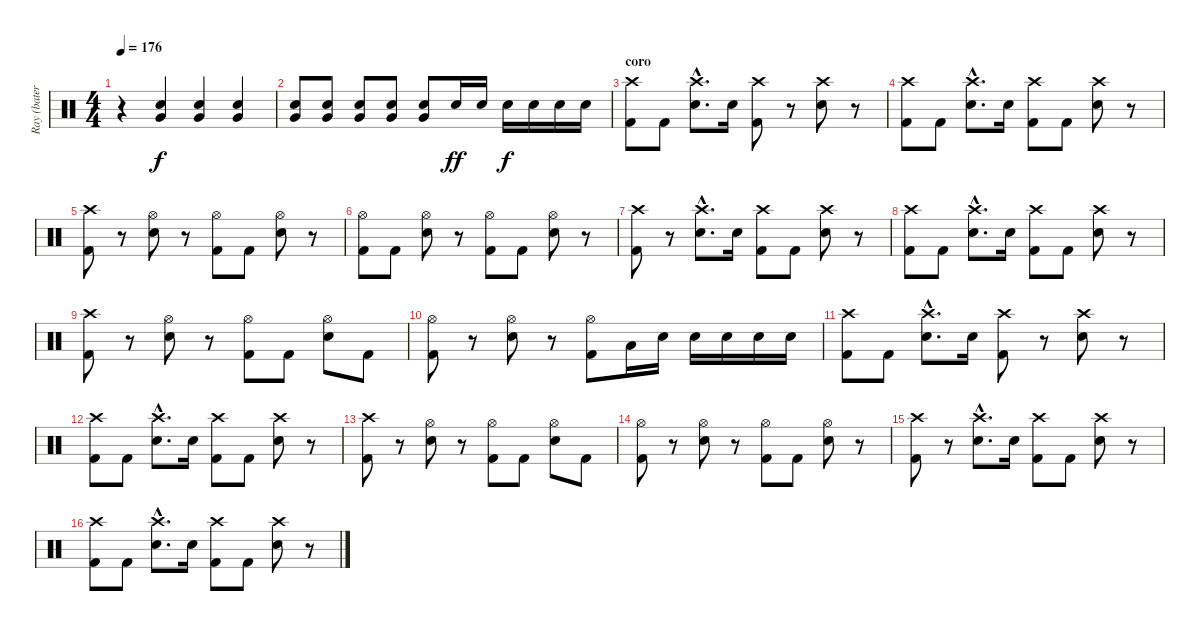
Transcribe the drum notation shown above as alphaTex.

\track ("Ray (batería)" "Ray (bater") {instrument percussion}
\staff {score}
\articulation defaults
\ts (4 4)
\tempo 176
\clef neutral
\ks c
r.4{dy f} ("Snare (hit) 2" "Very Low Tom (hit)").4 ("Snare (hit) 2" "Very Low Tom (hit)").4 ("Snare (hit) 2" "Very Low Tom (hit)").4 |
("Snare (hit) 2" "Very Low Tom (hit)").8 ("Snare (hit) 2" "Very Low Tom (hit)").8 ("Snare (hit) 2" "Very Low Tom (hit)").8 ("Snare (hit) 2" "Very Low Tom (hit)").8 ("Snare (hit) 2" "Very Low Tom (hit)").8 "Snare (hit) 2".16{dy ff} "Snare (hit) 2".16 "Snare (hit) 2".16{dy f} "Snare (hit) 2".16 "Snare (hit) 2".16 "Snare (hit) 2".16 |
\section ("" "coro")
("Crash high (hit)" "Kick (hit) 2").8 "Kick (hit) 2".8 ("Crash high (hit)"{hac} "Snare (hit) 2"{hac}).8{d} "Snare (hit) 2".16 ("Crash high (hit)" "Kick (hit) 2").8 r.8 ("Crash high (hit)" "Snare (hit) 2").8 r.8 |
("Crash high (hit)" "Kick (hit) 2").8 "Kick (hit) 2".8 ("Crash high (hit)"{hac} "Snare (hit) 2"{hac}).8{d} "Snare (hit) 2".16 ("Crash high (hit)" "Kick (hit) 2").8 "Kick (hit) 2".8 ("Crash high (hit)" "Snare (hit) 2").8 r.8 |
("Crash high (hit)" "Kick (hit) 2").8 r.8 ("Hi-Hat (open)" "Snare (hit) 2").8 r.8 ("Hi-Hat (open)" "Kick (hit) 2").8 "Kick (hit) 2".8 ("Hi-Hat (open)" "Snare (hit) 2").8 r.8 |
("Hi-Hat (open)" "Kick (hit) 2").8 "Kick (hit) 2".8 ("Hi-Hat (open)" "Snare (hit) 2").8 r.8 ("Hi-Hat (open)" "Kick (hit) 2").8 "Kick (hit) 2".8 ("Hi-Hat (open)" "Snare (hit) 2").8 r.8 |
("Crash high (hit)" "Kick (hit) 2").8 r.8 ("Crash high (hit)"{hac} "Snare (hit) 2"{hac}).8{d} "Snare (hit) 2".16 ("Crash high (hit)" "Kick (hit) 2").8 "Kick (hit) 2".8 ("Crash high (hit)" "Snare (hit) 2").8 r.8 |
("Crash high (hit)" "Kick (hit) 2").8 "Kick (hit) 2".8 ("Crash high (hit)"{hac} "Snare (hit) 2"{hac}).8{d} "Snare (hit) 2".16 ("Crash high (hit)" "Kick (hit) 2").8 "Kick (hit) 2".8 ("Crash high (hit)" "Snare (hit) 2").8 r.8 |
("Crash high (hit)" "Kick (hit) 2").8 r.8 ("Hi-Hat (open)" "Snare (hit) 2").8 r.8 ("Hi-Hat (open)" "Kick (hit) 2").8 "Kick (hit) 2".8 ("Hi-Hat (open)" "Snare (hit) 2").8 "Kick (hit) 2".8 |
("Hi-Hat (open)" "Kick (hit) 2").8 r.8 ("Hi-Hat (open)" "Snare (hit) 2").8 r.8 ("Hi-Hat (open)" "Kick (hit) 2").8 "Low Tom (hit)".16 "Snare (hit) 2".16 "Snare (hit) 2".16 "Snare (hit) 2".16 "Snare (hit) 2".16 "Snare (hit) 2".16 |
("Crash high (hit)" "Kick (hit) 2").8 "Kick (hit) 2".8 ("Crash high (hit)"{hac} "Snare (hit) 2"{hac}).8{d} "Snare (hit) 2".16 ("Crash high (hit)" "Kick (hit) 2").8 r.8 ("Crash high (hit)" "Snare (hit) 2").8 r.8 |
("Crash high (hit)" "Kick (hit) 2").8 "Kick (hit) 2".8 ("Crash high (hit)"{hac} "Snare (hit) 2"{hac}).8{d} "Snare (hit) 2".16 ("Crash high (hit)" "Kick (hit) 2").8 "Kick (hit) 2".8 ("Crash high (hit)" "Snare (hit) 2").8 r.8 |
("Crash high (hit)" "Kick (hit) 2").8 r.8 ("Hi-Hat (open)" "Snare (hit) 2").8 r.8 ("Hi-Hat (open)" "Kick (hit) 2").8 "Kick (hit) 2".8 ("Hi-Hat (open)" "Snare (hit) 2").8 "Kick (hit) 2".8 |
("Hi-Hat (open)" "Kick (hit) 2").8 r.8 ("Hi-Hat (open)" "Snare (hit) 2").8 r.8 ("Hi-Hat (open)" "Kick (hit) 2").8 "Kick (hit) 2".8 ("Hi-Hat (open)" "Snare (hit) 2").8 r.8 |
("Crash high (hit)" "Kick (hit) 2").8 r.8 ("Crash high (hit)"{hac} "Snare (hit) 2"{hac}).8{d} "Snare (hit) 2".16 ("Crash high (hit)" "Kick (hit) 2").8 "Kick (hit) 2".8 ("Crash high (hit)" "Snare (hit) 2").8 r.8 |
("Crash high (hit)" "Kick (hit) 2").8 "Kick (hit) 2".8 ("Crash high (hit)"{hac} "Snare (hit) 2"{hac}).8{d} "Snare (hit) 2".16 ("Crash high (hit)" "Kick (hit) 2").8 "Kick (hit) 2".8 ("Crash high (hit)" "Snare (hit) 2").8 r.8
